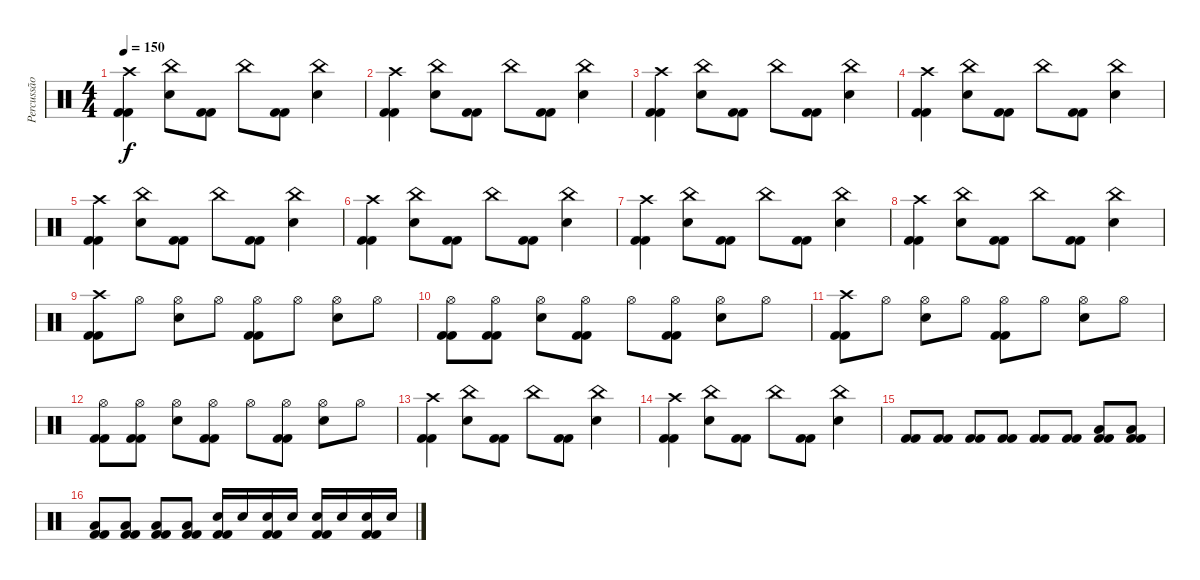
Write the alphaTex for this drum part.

\track ("Percussão" "Percussão") {instrument percussion}
\staff {score}
\articulation defaults
\ts (4 4)
\tempo 150
\clef neutral
\ks c
("Crash high (hit)" "Kick (hit) 2" "Kick (hit) 2").4{dy f} ("China (hit)" "Electric Snare (hit)").8 ("Kick (hit) 2" "Kick (hit) 2").8 "China (hit)".8 ("Kick (hit) 2" "Kick (hit) 2").8 ("China (hit)" "Electric Snare (hit)").4 |
("Crash high (hit)" "Kick (hit) 2" "Kick (hit) 2").4 ("China (hit)" "Electric Snare (hit)").8 ("Kick (hit) 2" "Kick (hit) 2").8 "China (hit)".8 ("Kick (hit) 2" "Kick (hit) 2").8 ("China (hit)" "Electric Snare (hit)").4 |
("Crash high (hit)" "Kick (hit) 2" "Kick (hit) 2").4 ("China (hit)" "Electric Snare (hit)").8 ("Kick (hit) 2" "Kick (hit) 2").8 "China (hit)".8 ("Kick (hit) 2" "Kick (hit) 2").8 ("China (hit)" "Electric Snare (hit)").4 |
("Crash high (hit)" "Kick (hit) 2" "Kick (hit) 2").4 ("China (hit)" "Electric Snare (hit)").8 ("Kick (hit) 2" "Kick (hit) 2").8 "China (hit)".8 ("Kick (hit) 2" "Kick (hit) 2").8 ("China (hit)" "Electric Snare (hit)").4 |
("Crash high (hit)" "Kick (hit) 2" "Kick (hit) 2").4 ("China (hit)" "Electric Snare (hit)").8 ("Kick (hit) 2" "Kick (hit) 2").8 "China (hit)".8 ("Kick (hit) 2" "Kick (hit) 2").8 ("China (hit)" "Electric Snare (hit)").4 |
("Crash high (hit)" "Kick (hit) 2" "Kick (hit) 2").4 ("China (hit)" "Electric Snare (hit)").8 ("Kick (hit) 2" "Kick (hit) 2").8 "China (hit)".8 ("Kick (hit) 2" "Kick (hit) 2").8 ("China (hit)" "Electric Snare (hit)").4 |
("Crash high (hit)" "Kick (hit) 2" "Kick (hit) 2").4 ("China (hit)" "Electric Snare (hit)").8 ("Kick (hit) 2" "Kick (hit) 2").8 "China (hit)".8 ("Kick (hit) 2" "Kick (hit) 2").8 ("China (hit)" "Electric Snare (hit)").4 |
("Crash high (hit)" "Kick (hit) 2" "Kick (hit) 2").4 ("China (hit)" "Electric Snare (hit)").8 ("Kick (hit) 2" "Kick (hit) 2").8 "China (hit)".8 ("Kick (hit) 2" "Kick (hit) 2").8 ("China (hit)" "Electric Snare (hit)").4 |
("Crash high (hit)" "Kick (hit) 2" "Kick (hit) 2").8 "Hi-Hat (open)".8 ("Hi-Hat (open)" "Electric Snare (hit)").8 "Hi-Hat (open)".8 ("Hi-Hat (open)" "Kick (hit) 2" "Kick (hit) 2").8 "Hi-Hat (open)".8 ("Hi-Hat (open)" "Electric Snare (hit)").8 "Hi-Hat (open)".8 |
("Hi-Hat (open)" "Kick (hit) 2" "Kick (hit) 2").8 ("Hi-Hat (open)" "Kick (hit) 2" "Kick (hit) 2").8 ("Hi-Hat (open)" "Electric Snare (hit)").8 ("Hi-Hat (open)" "Kick (hit) 2" "Kick (hit) 2").8 "Hi-Hat (open)".8 ("Hi-Hat (open)" "Kick (hit) 2" "Kick (hit) 2").8 ("Hi-Hat (open)" "Electric Snare (hit)").8 "Hi-Hat (open)".8 |
("Crash high (hit)" "Kick (hit) 2" "Kick (hit) 2").8 "Hi-Hat (open)".8 ("Hi-Hat (open)" "Electric Snare (hit)").8 "Hi-Hat (open)".8 ("Hi-Hat (open)" "Kick (hit) 2" "Kick (hit) 2").8 "Hi-Hat (open)".8 ("Hi-Hat (open)" "Electric Snare (hit)").8 "Hi-Hat (open)".8 |
("Hi-Hat (open)" "Kick (hit) 2" "Kick (hit) 2").8 ("Hi-Hat (open)" "Kick (hit) 2" "Kick (hit) 2").8 ("Hi-Hat (open)" "Electric Snare (hit)").8 ("Hi-Hat (open)" "Kick (hit) 2" "Kick (hit) 2").8 "Hi-Hat (open)".8 ("Hi-Hat (open)" "Kick (hit) 2" "Kick (hit) 2").8 ("Hi-Hat (open)" "Electric Snare (hit)").8 "Hi-Hat (open)".8 |
("Crash high (hit)" "Kick (hit) 2" "Kick (hit) 2").4 ("China (hit)" "Electric Snare (hit)").8 ("Kick (hit) 2" "Kick (hit) 2").8 "China (hit)".8 ("Kick (hit) 2" "Kick (hit) 2").8 ("China (hit)" "Electric Snare (hit)").4 |
("Crash high (hit)" "Kick (hit) 2" "Kick (hit) 2").4 ("China (hit)" "Electric Snare (hit)").8 ("Kick (hit) 2" "Kick (hit) 2").8 "China (hit)".8 ("Kick (hit) 2" "Kick (hit) 2").8 ("China (hit)" "Electric Snare (hit)").4 |
("Kick (hit) 2" "Kick (hit) 2").8 ("Kick (hit) 2" "Kick (hit) 2").8 ("Kick (hit) 2" "Kick (hit) 2").8 ("Kick (hit) 2" "Kick (hit) 2").8 ("Kick (hit) 2" "Kick (hit) 2").8 ("Kick (hit) 2" "Kick (hit) 2").8 ("Low Tom (hit)" "Kick (hit) 2" "Kick (hit) 2").8 ("Low Tom (hit)" "Kick (hit) 2" "Kick (hit) 2").8 |
("Low Tom (hit)" "Kick (hit) 2" "Kick (hit) 2").8 ("Low Tom (hit)" "Kick (hit) 2" "Kick (hit) 2").8 ("Low Tom (hit)" "Kick (hit) 2" "Kick (hit) 2").8 ("Low Tom (hit)" "Kick (hit) 2" "Kick (hit) 2").8 ("Electric Snare (hit)" "Kick (hit) 2" "Kick (hit) 2").16 "Electric Snare (hit)".16 ("Electric Snare (hit)" "Kick (hit) 2" "Kick (hit) 2").16 "Electric Snare (hit)".16 ("Electric Snare (hit)" "Kick (hit) 2" "Kick (hit) 2").16 "Electric Snare (hit)".16 ("Electric Snare (hit)" "Kick (hit) 2" "Kick (hit) 2").16 "Electric Snare (hit)".16
